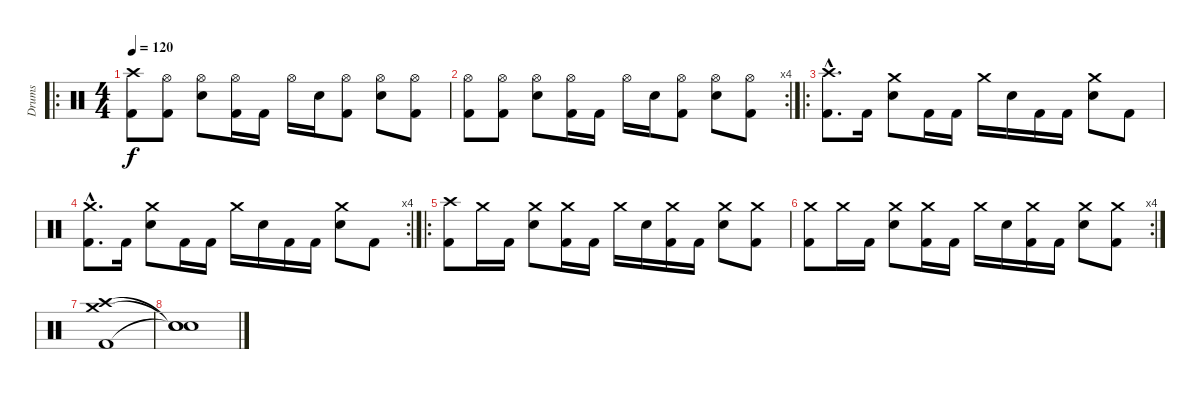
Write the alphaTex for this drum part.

\track ("Drums" "Drums") {instrument percussion}
\staff {score}
\articulation defaults
\ro
\ts (4 4)
\tempo 120
\clef neutral
\ks c
("Crash high (hit)" "Kick (hit) 2").8{dy f} ("Hi-Hat (open)" "Kick (hit) 2").8 ("Hi-Hat (open)" "Electric Snare (hit)").8 ("Hi-Hat (open)" "Kick (hit) 2").16 "Kick (hit) 2".16 "Hi-Hat (open)".16 "Electric Snare (hit)".16 ("Hi-Hat (open)" "Kick (hit) 2").8 ("Hi-Hat (open)" "Electric Snare (hit)").8 ("Hi-Hat (open)" "Kick (hit) 2").8 |
\rc 4
("Hi-Hat (open)" "Kick (hit) 2").8 ("Hi-Hat (open)" "Kick (hit) 2").8 ("Hi-Hat (open)" "Electric Snare (hit)").8 ("Hi-Hat (open)" "Kick (hit) 2").16 "Kick (hit) 2".16 "Hi-Hat (open)".16 "Electric Snare (hit)".16 ("Hi-Hat (open)" "Kick (hit) 2").8 ("Hi-Hat (open)" "Electric Snare (hit)").8 ("Hi-Hat (open)" "Kick (hit) 2").8 |
\ro
("Crash high (hit)"{hac} "Kick (hit) 2"{hac}).8{d} "Kick (hit) 2".16 ("Crash medium (hit)" "Electric Snare (hit)").8 "Kick (hit) 2".16 "Kick (hit) 2".16 "Crash medium (hit)".16 "Electric Snare (hit)".16 "Kick (hit) 2".16 "Kick (hit) 2".16 ("Crash medium (hit)" "Electric Snare (hit)").8 "Kick (hit) 2".8 |
\rc 4
("Crash medium (hit)"{hac} "Kick (hit) 2"{hac}).8{d} "Kick (hit) 2".16 ("Crash medium (hit)" "Electric Snare (hit)").8 "Kick (hit) 2".16 "Kick (hit) 2".16 "Crash medium (hit)".16 "Electric Snare (hit)".16 "Kick (hit) 2".16 "Kick (hit) 2".16 ("Crash medium (hit)" "Electric Snare (hit)").8 "Kick (hit) 2".8 |
\ro
("Crash high (hit)" "Kick (hit) 2").8 "Crash medium (hit)".16 "Kick (hit) 2".16 ("Crash medium (hit)" "Electric Snare (hit)").8 ("Crash medium (hit)" "Kick (hit) 2").16 "Kick (hit) 2".16 "Crash medium (hit)".16 "Electric Snare (hit)".16 ("Crash medium (hit)" "Kick (hit) 2").16 "Kick (hit) 2".16 ("Crash medium (hit)" "Electric Snare (hit)").8 ("Crash medium (hit)" "Kick (hit) 2").8 |
\rc 4
("Crash medium (hit)" "Kick (hit) 2").8 "Crash medium (hit)".16 "Kick (hit) 2".16 ("Crash medium (hit)" "Electric Snare (hit)").8 ("Crash medium (hit)" "Kick (hit) 2").16 "Kick (hit) 2".16 "Crash medium (hit)".16 "Electric Snare (hit)".16 ("Crash medium (hit)" "Kick (hit) 2").16 "Kick (hit) 2".16 ("Crash medium (hit)" "Electric Snare (hit)").8 ("Crash medium (hit)" "Kick (hit) 2").8 |
("Crash medium (hit)" "Crash high (hit)" "Kick (hit) 2").1 |
("Snare (hit)"{t} "Snare (hit)"{t} "Snare (hit)"{t}).1
